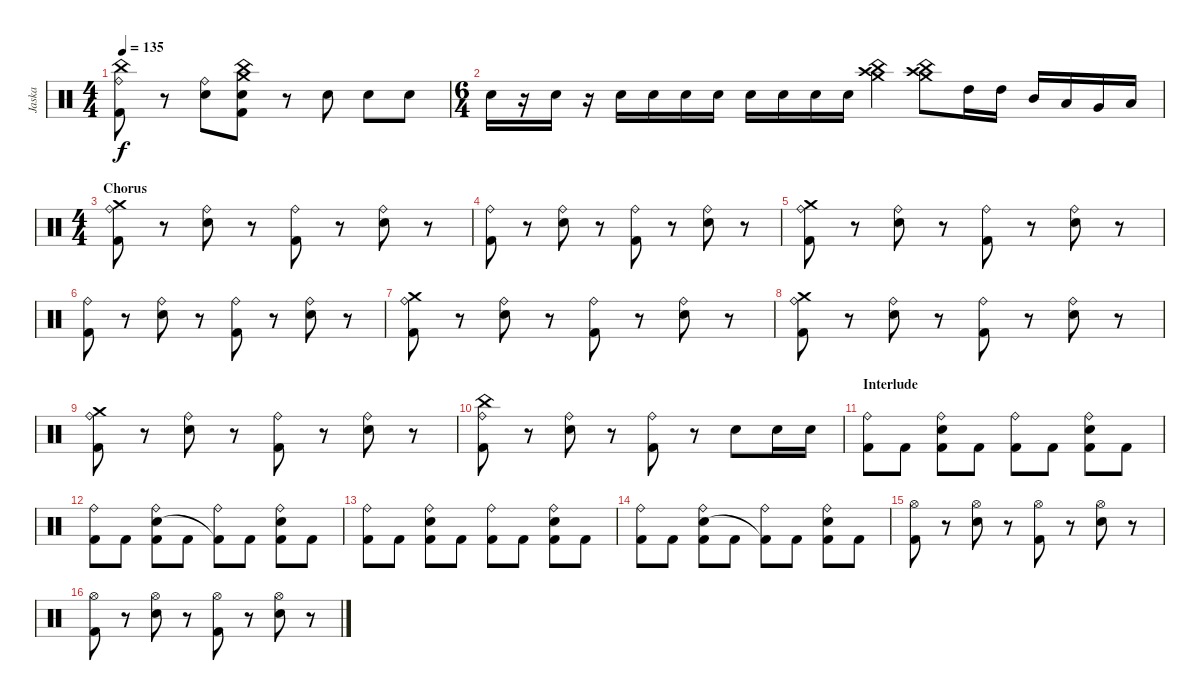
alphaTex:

\track ("Jaska" "Jaska") {instrument percussion}
\staff {score}
\articulation defaults
\ts (4 4)
\tempo 135
\clef neutral
\ks c
("Ride (bell)" "China (hit)" "Kick (hit) 2").8{dy f} r.8 ("Ride (bell)" "Snare (hit) 2").8 ("China (hit)" "Crash medium (hit)" "Snare (hit) 2" "Kick (hit) 2").8 r.8 "Electric Snare (hit)".8 "Electric Snare (hit)".8 "Electric Snare (hit)".8 |
\ts (6 4)
"Electric Snare (hit)".16 r.16 "Electric Snare (hit)".16 r.16 "Electric Snare (hit)".16 "Electric Snare (hit)".16 "Electric Snare (hit)".16 "Electric Snare (hit)".16 "Electric Snare (hit)".16 "Electric Snare (hit)".16 "Electric Snare (hit)".16 "Electric Snare (hit)".16 ("Crash high (hit)" "Crash medium (hit)" "China (hit)").4 ("Crash high (hit)" "Crash medium (hit)" "China (hit)").8 "High Tom (hit)".16 "High Tom (hit)".16 "Mid Tom (hit)".16 "Low Tom (hit)".16 "Very Low Tom (hit)".16 "Low Floor Tom (hit)".16 |
\ts (4 4)
\section ("" "Chorus")
("Crash medium (hit)" "Ride (bell)" "Kick (hit) 2").8 r.8 ("Ride (bell)" "Snare (hit) 2").8 r.8 ("Ride (bell)" "Kick (hit) 2").8 r.8 ("Ride (bell)" "Snare (hit) 2").8 r.8 |
("Ride (bell)" "Kick (hit) 2").8 r.8 ("Ride (bell)" "Snare (hit) 2").8 r.8 ("Ride (bell)" "Kick (hit) 2").8 r.8 ("Ride (bell)" "Snare (hit) 2").8 r.8 |
("Crash medium (hit)" "Ride (bell)" "Kick (hit) 2").8 r.8 ("Ride (bell)" "Snare (hit) 2").8 r.8 ("Ride (bell)" "Kick (hit) 2").8 r.8 ("Ride (bell)" "Snare (hit) 2").8 r.8 |
("Ride (bell)" "Kick (hit) 2").8 r.8 ("Ride (bell)" "Snare (hit) 2").8 r.8 ("Ride (bell)" "Kick (hit) 2").8 r.8 ("Ride (bell)" "Snare (hit) 2").8 r.8 |
("Crash medium (hit)" "Ride (bell)" "Kick (hit) 2").8 r.8 ("Ride (bell)" "Snare (hit) 2").8 r.8 ("Ride (bell)" "Kick (hit) 2").8 r.8 ("Ride (bell)" "Snare (hit) 2").8 r.8 |
("Crash medium (hit)" "Ride (bell)" "Kick (hit) 2").8 r.8 ("Ride (bell)" "Snare (hit) 2").8 r.8 ("Ride (bell)" "Kick (hit) 2").8 r.8 ("Ride (bell)" "Snare (hit) 2").8 r.8 |
("Crash medium (hit)" "Ride (bell)" "Kick (hit) 2").8 r.8 ("Ride (bell)" "Snare (hit) 2").8 r.8 ("Ride (bell)" "Kick (hit) 2").8 r.8 ("Ride (bell)" "Snare (hit) 2").8 r.8 |
("Ride (bell)" "China (hit)" "Kick (hit) 2").8 r.8 ("Ride (bell)" "Snare (hit) 2").8 r.8 ("Ride (bell)" "Kick (hit) 2").8 r.8 "Electric Snare (hit)".8 "Electric Snare (hit)".16 "Electric Snare (hit)".16 |
\section ("" "Interlude")
("Ride (bell)" "Kick (hit) 2").8 "Kick (hit) 2".8 ("Ride (bell)" "Snare (hit) 2" "Kick (hit) 2").8 "Kick (hit) 2".8 ("Ride (bell)" "Kick (hit) 2").8 "Kick (hit) 2".8 ("Ride (bell)" "Snare (hit) 2" "Kick (hit) 2").8 "Kick (hit) 2".8 |
("Ride (bell)" "Kick (hit) 2").8 "Kick (hit) 2".8 ("Ride (bell)" "Snare (hit) 2" "Kick (hit) 2").8 "Kick (hit) 2".8 ("Ride (bell)" "Kick (hit) 2"{t}).8 "Kick (hit) 2".8 ("Ride (bell)" "Snare (hit) 2" "Kick (hit) 2").8 "Kick (hit) 2".8 |
("Ride (bell)" "Kick (hit) 2").8 "Kick (hit) 2".8 ("Ride (bell)" "Snare (hit) 2" "Kick (hit) 2").8 "Kick (hit) 2".8 ("Ride (bell)" "Kick (hit) 2").8 "Kick (hit) 2".8 ("Ride (bell)" "Snare (hit) 2" "Kick (hit) 2").8 "Kick (hit) 2".8 |
("Ride (bell)" "Kick (hit) 2").8 "Kick (hit) 2".8 ("Ride (bell)" "Snare (hit) 2" "Kick (hit) 2").8 "Kick (hit) 2".8 ("Ride (bell)" "Kick (hit) 2"{t}).8 "Kick (hit) 2".8 ("Ride (bell)" "Snare (hit) 2" "Kick (hit) 2").8 "Kick (hit) 2".8 |
("Hi-Hat (open)" "Kick (hit) 2").8 r.8 ("Hi-Hat (open)" "Electric Snare (hit)").8 r.8 ("Hi-Hat (open)" "Kick (hit) 2").8 r.8 ("Hi-Hat (open)" "Electric Snare (hit)").8 r.8 |
("Hi-Hat (open)" "Kick (hit) 2").8 r.8 ("Hi-Hat (open)" "Electric Snare (hit)").8 r.8 ("Hi-Hat (open)" "Kick (hit) 2").8 r.8 ("Hi-Hat (open)" "Electric Snare (hit)").8 r.8
